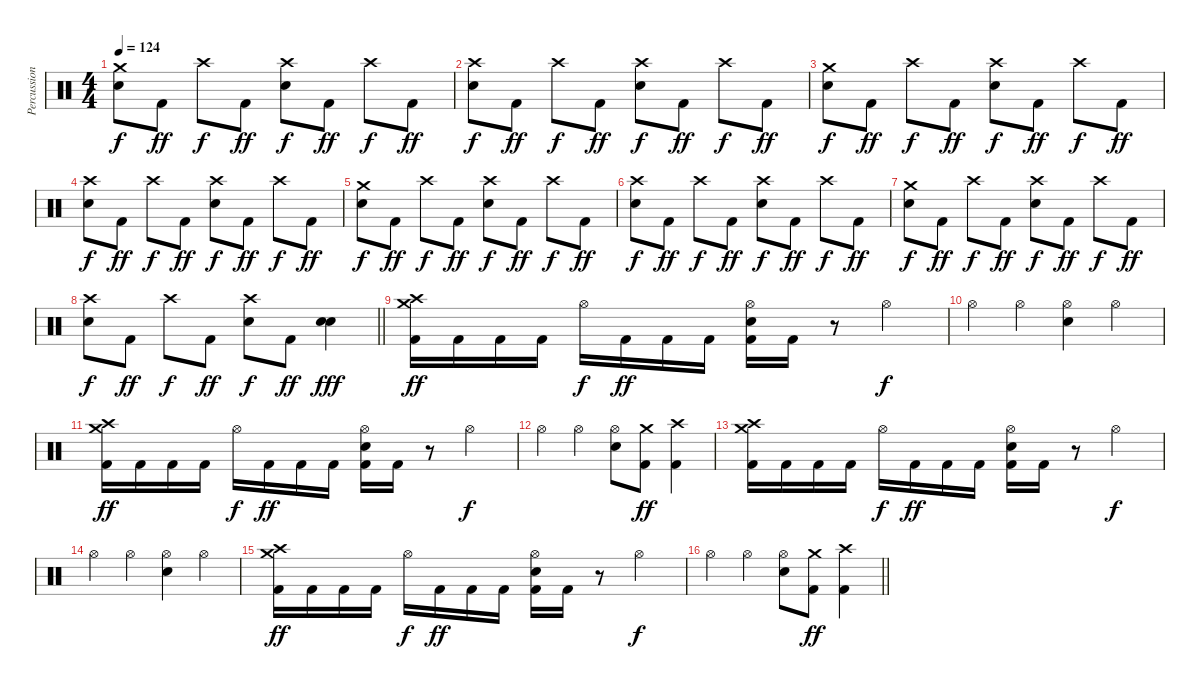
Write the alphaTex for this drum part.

\track ("Percussion" "Percussion") {instrument percussion}
\staff {score}
\articulation defaults
\ts (4 4)
\tempo 124
\clef neutral
\ks c
("Crash medium (hit)" "Electric Snare (hit)").8{dy f} "Kick (hit) 2".8{dy ff} "Crash high (hit)".8{dy f} "Kick (hit) 2".8{dy ff} ("Crash high (hit)" "Electric Snare (hit)").8{dy f} "Kick (hit) 2".8{dy ff} "Crash high (hit)".8{dy f} "Kick (hit) 2".8{dy ff} |
("Crash high (hit)" "Electric Snare (hit)").8{dy f} "Kick (hit) 2".8{dy ff} "Crash high (hit)".8{dy f} "Kick (hit) 2".8{dy ff} ("Crash high (hit)" "Electric Snare (hit)").8{dy f} "Kick (hit) 2".8{dy ff} "Crash high (hit)".8{dy f} "Kick (hit) 2".8{dy ff} |
("Crash medium (hit)" "Electric Snare (hit)").8{dy f} "Kick (hit) 2".8{dy ff} "Crash high (hit)".8{dy f} "Kick (hit) 2".8{dy ff} ("Crash high (hit)" "Electric Snare (hit)").8{dy f} "Kick (hit) 2".8{dy ff} "Crash high (hit)".8{dy f} "Kick (hit) 2".8{dy ff} |
("Crash high (hit)" "Electric Snare (hit)").8{dy f} "Kick (hit) 2".8{dy ff} "Crash high (hit)".8{dy f} "Kick (hit) 2".8{dy ff} ("Crash high (hit)" "Electric Snare (hit)").8{dy f} "Kick (hit) 2".8{dy ff} "Crash high (hit)".8{dy f} "Kick (hit) 2".8{dy ff} |
("Crash medium (hit)" "Electric Snare (hit)").8{dy f} "Kick (hit) 2".8{dy ff} "Crash high (hit)".8{dy f} "Kick (hit) 2".8{dy ff} ("Crash high (hit)" "Electric Snare (hit)").8{dy f} "Kick (hit) 2".8{dy ff} "Crash high (hit)".8{dy f} "Kick (hit) 2".8{dy ff} |
("Crash high (hit)" "Electric Snare (hit)").8{dy f} "Kick (hit) 2".8{dy ff} "Crash high (hit)".8{dy f} "Kick (hit) 2".8{dy ff} ("Crash high (hit)" "Electric Snare (hit)").8{dy f} "Kick (hit) 2".8{dy ff} "Crash high (hit)".8{dy f} "Kick (hit) 2".8{dy ff} |
("Crash medium (hit)" "Electric Snare (hit)").8{dy f} "Kick (hit) 2".8{dy ff} "Crash high (hit)".8{dy f} "Kick (hit) 2".8{dy ff} ("Crash high (hit)" "Electric Snare (hit)").8{dy f} "Kick (hit) 2".8{dy ff} "Crash high (hit)".8{dy f} "Kick (hit) 2".8{dy ff} |
\barLineRight lightlight
("Crash high (hit)" "Electric Snare (hit)").8{dy f} "Kick (hit) 2".8{dy ff} "Crash high (hit)".8{dy f} "Kick (hit) 2".8{dy ff} ("Crash high (hit)" "Electric Snare (hit)").8{dy f} "Kick (hit) 2".8{dy ff} ("Electric Snare (hit)" "Electric Snare (hit)").4{dy fff} |
("Crash medium (hit)" "Crash high (hit)" "Kick (hit) 2").16{dy ff} "Kick (hit) 2".16 "Kick (hit) 2".16 "Kick (hit) 2".16 "Hi-Hat (open)".16{dy f} "Kick (hit) 2".16{dy ff} "Kick (hit) 2".16 "Kick (hit) 2".16 ("Hi-Hat (open)" "Electric Snare (hit)" "Kick (hit) 2").16 "Kick (hit) 2".16 r.8 "Hi-Hat (open)".4{dy f} |
"Hi-Hat (open)".4 "Hi-Hat (open)".4 ("Hi-Hat (open)" "Electric Snare (hit)").4 "Hi-Hat (open)".4 |
("Crash medium (hit)" "Crash high (hit)" "Kick (hit) 2").16{dy ff} "Kick (hit) 2".16 "Kick (hit) 2".16 "Kick (hit) 2".16 "Hi-Hat (open)".16{dy f} "Kick (hit) 2".16{dy ff} "Kick (hit) 2".16 "Kick (hit) 2".16 ("Hi-Hat (open)" "Electric Snare (hit)" "Kick (hit) 2").16 "Kick (hit) 2".16 r.8 "Hi-Hat (open)".4{dy f} |
"Hi-Hat (open)".4 "Hi-Hat (open)".4 ("Hi-Hat (open)" "Electric Snare (hit)").8 ("Crash medium (hit)" "Kick (hit) 2").8{dy ff} ("Crash high (hit)" "Kick (hit) 2").4 |
("Crash medium (hit)" "Crash high (hit)" "Kick (hit) 2").16 "Kick (hit) 2".16 "Kick (hit) 2".16 "Kick (hit) 2".16 "Hi-Hat (open)".16{dy f} "Kick (hit) 2".16{dy ff} "Kick (hit) 2".16 "Kick (hit) 2".16 ("Hi-Hat (open)" "Electric Snare (hit)" "Kick (hit) 2").16 "Kick (hit) 2".16 r.8 "Hi-Hat (open)".4{dy f} |
"Hi-Hat (open)".4 "Hi-Hat (open)".4 ("Hi-Hat (open)" "Electric Snare (hit)").4 "Hi-Hat (open)".4 |
("Crash medium (hit)" "Crash high (hit)" "Kick (hit) 2").16{dy ff} "Kick (hit) 2".16 "Kick (hit) 2".16 "Kick (hit) 2".16 "Hi-Hat (open)".16{dy f} "Kick (hit) 2".16{dy ff} "Kick (hit) 2".16 "Kick (hit) 2".16 ("Hi-Hat (open)" "Electric Snare (hit)" "Kick (hit) 2").16 "Kick (hit) 2".16 r.8 "Hi-Hat (open)".4{dy f} |
\barLineRight lightlight "Hi-Hat (open)".4 "Hi-Hat (open)".4
("Hi-Hat (open)" "Electric Snare (hit)").8 ("Crash medium (hit)" "Kick (hit) 2").8{dy ff} ("Crash high (hit)" "Kick (hit) 2").4
